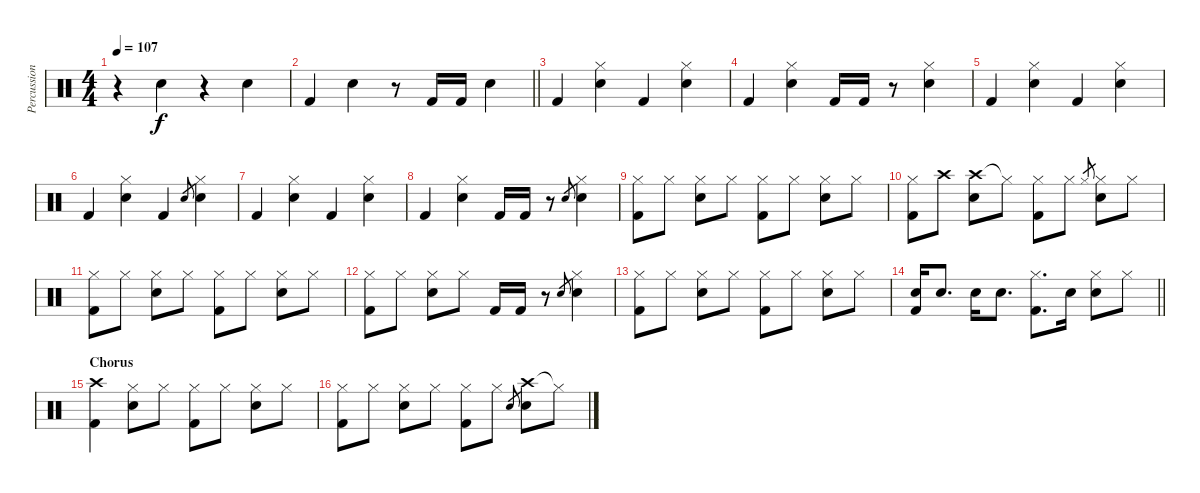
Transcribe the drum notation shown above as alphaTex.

\track ("Percussion" "Percussion") {instrument percussion}
\staff {score}
\articulation defaults
\ts (4 4)
\tempo 107
\clef neutral
\ks c
r.4{dy f} "Electric Snare (hit)".4 r.4 "Electric Snare (hit)".4 |
\barLineRight lightlight "Kick (hit) 2".4 "Electric Snare (hit)".4
r.8 "Kick (hit) 2".16 "Kick (hit) 2".16 "Electric Snare (hit)".4 |
"Kick (hit) 2".4 ("Hi-Hat (closed)" "Electric Snare (hit)").4 "Kick (hit) 2".4 ("Hi-Hat (closed)" "Electric Snare (hit)").4 |
"Kick (hit) 2".4 ("Hi-Hat (closed)" "Electric Snare (hit)").4 "Kick (hit) 2".16 "Kick (hit) 2".16 r.8 ("Hi-Hat (closed)" "Electric Snare (hit)").4 |
"Kick (hit) 2".4 ("Hi-Hat (closed)" "Electric Snare (hit)").4 "Kick (hit) 2".4 ("Hi-Hat (closed)" "Electric Snare (hit)").4 |
"Kick (hit) 2".4 ("Hi-Hat (closed)" "Electric Snare (hit)").4 "Kick (hit) 2".4 "Electric Snare (hit)".8{gr} ("Hi-Hat (closed)" "Electric Snare (hit)").4 |
"Kick (hit) 2".4 ("Hi-Hat (closed)" "Electric Snare (hit)").4 "Kick (hit) 2".4 ("Hi-Hat (closed)" "Electric Snare (hit)").4 |
"Kick (hit) 2".4 ("Hi-Hat (closed)" "Electric Snare (hit)").4 "Kick (hit) 2".16 "Kick (hit) 2".16 r.8 "Electric Snare (hit)".8{gr} ("Hi-Hat (closed)" "Electric Snare (hit)").4 |
("Hi-Hat (closed)" "Kick (hit) 2").8 "Hi-Hat (closed)".8 ("Hi-Hat (closed)" "Electric Snare (hit)").8 "Hi-Hat (closed)".8 ("Hi-Hat (closed)" "Kick (hit) 2").8 "Hi-Hat (closed)".8 ("Hi-Hat (closed)" "Electric Snare (hit)").8 "Hi-Hat (closed)".8 |
("Hi-Hat (closed)" "Kick (hit) 2").8 "Crash high (hit)".8 ("Crash high (hit)" "Electric Snare (hit)").8 "Hi-Hat (closed)"{t}.8 ("Hi-Hat (closed)" "Kick (hit) 2").8 "Hi-Hat (closed)".8 "Hi-Hat (closed)".8{gr} ("Hi-Hat (closed)" "Electric Snare (hit)").8 "Hi-Hat (closed)".8 |
("Hi-Hat (closed)" "Kick (hit) 2").8 "Hi-Hat (closed)".8 ("Hi-Hat (closed)" "Electric Snare (hit)").8 "Hi-Hat (closed)".8 ("Hi-Hat (closed)" "Kick (hit) 2").8 "Hi-Hat (closed)".8 ("Hi-Hat (closed)" "Electric Snare (hit)").8 "Hi-Hat (closed)".8 |
("Hi-Hat (closed)" "Kick (hit) 2").8 "Hi-Hat (closed)".8 ("Hi-Hat (closed)" "Electric Snare (hit)").8 "Hi-Hat (closed)".8 "Kick (hit) 2".16 "Kick (hit) 2".16 r.8 "Electric Snare (hit)".8{gr} ("Hi-Hat (closed)" "Electric Snare (hit)").4 |
("Hi-Hat (closed)" "Kick (hit) 2").8 "Hi-Hat (closed)".8 ("Hi-Hat (closed)" "Electric Snare (hit)").8 "Hi-Hat (closed)".8 ("Hi-Hat (closed)" "Kick (hit) 2").8 "Hi-Hat (closed)".8 ("Hi-Hat (closed)" "Electric Snare (hit)").8 "Hi-Hat (closed)".8 |
\barLineRight lightlight
("Electric Snare (hit)" "Kick (hit) 2").16 "Electric Snare (hit)".8{d} "Electric Snare (hit)".16 "Electric Snare (hit)".8{d} ("Hi-Hat (closed)" "Kick (hit) 2").8{d} "Electric Snare (hit)".16 ("Hi-Hat (closed)" "Electric Snare (hit)").8 "Hi-Hat (closed)".8 |
\section ("" "Chorus")
("Crash high (hit)" "Kick (hit) 2").4 ("Hi-Hat (closed)" "Electric Snare (hit)").8 "Hi-Hat (closed)".8 ("Hi-Hat (closed)" "Kick (hit) 2").8 "Hi-Hat (closed)".8 ("Hi-Hat (closed)" "Electric Snare (hit)").8 "Hi-Hat (closed)".8 |
("Hi-Hat (closed)" "Kick (hit) 2").8 "Hi-Hat (closed)".8 ("Hi-Hat (closed)" "Electric Snare (hit)").8 "Hi-Hat (closed)".8 ("Hi-Hat (closed)" "Kick (hit) 2").8 "Hi-Hat (closed)".8 "Electric Snare (hit)".8{gr} ("Crash high (hit)" "Electric Snare (hit)").8 "Hi-Hat (closed)"{t}.8
